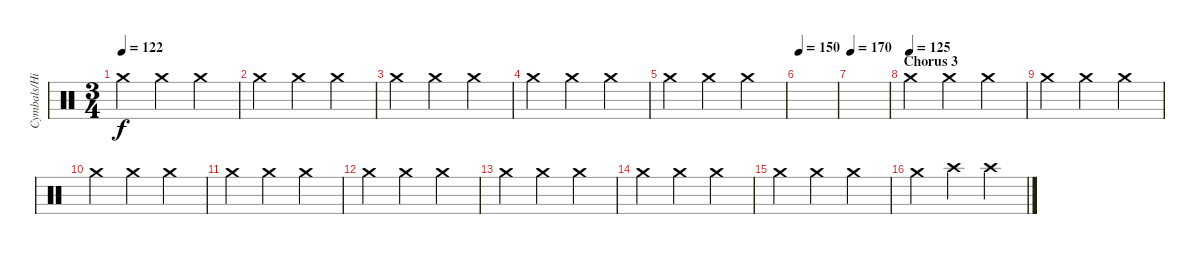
\track ("Cymbals/Hi-hat" "Cymbals/Hi") {instrument percussion}
\staff {score}
\articulation defaults
\ts (3 4)
\tempo 122
\clef neutral
\ks c "Crash medium (hit)".4{dy f} "Crash medium (hit)".4 "Crash medium (hit)".4
|
"Crash medium (hit)".4 "Crash medium (hit)".4 "Crash medium (hit)".4 |
"Crash medium (hit)".4 "Crash medium (hit)".4 "Crash medium (hit)".4 |
"Crash medium (hit)".4 "Crash medium (hit)".4 "Crash medium (hit)".4 |
"Crash medium (hit)".4 "Crash medium (hit)".4 "Crash medium (hit)".4 |
\tempo 150
|
\tempo 170
|
\section ("" "Chorus 3")
\tempo (125)
"Crash medium (hit)".4 "Crash medium (hit)".4 "Crash medium (hit)".4 |
"Crash medium (hit)".4 "Crash medium (hit)".4 "Crash medium (hit)".4 |
"Crash medium (hit)".4 "Crash medium (hit)".4 "Crash medium (hit)".4 |
"Crash medium (hit)".4 "Crash medium (hit)".4 "Crash medium (hit)".4 |
"Crash medium (hit)".4 "Crash medium (hit)".4 "Crash medium (hit)".4 |
"Crash medium (hit)".4 "Crash medium (hit)".4 "Crash medium (hit)".4 |
"Crash medium (hit)".4 "Crash medium (hit)".4 "Crash medium (hit)".4 |
"Crash medium (hit)".4 "Crash medium (hit)".4 "Crash medium (hit)".4 |
"Crash medium (hit)".4 "Crash high (hit)".4 "Crash high (hit)".4
